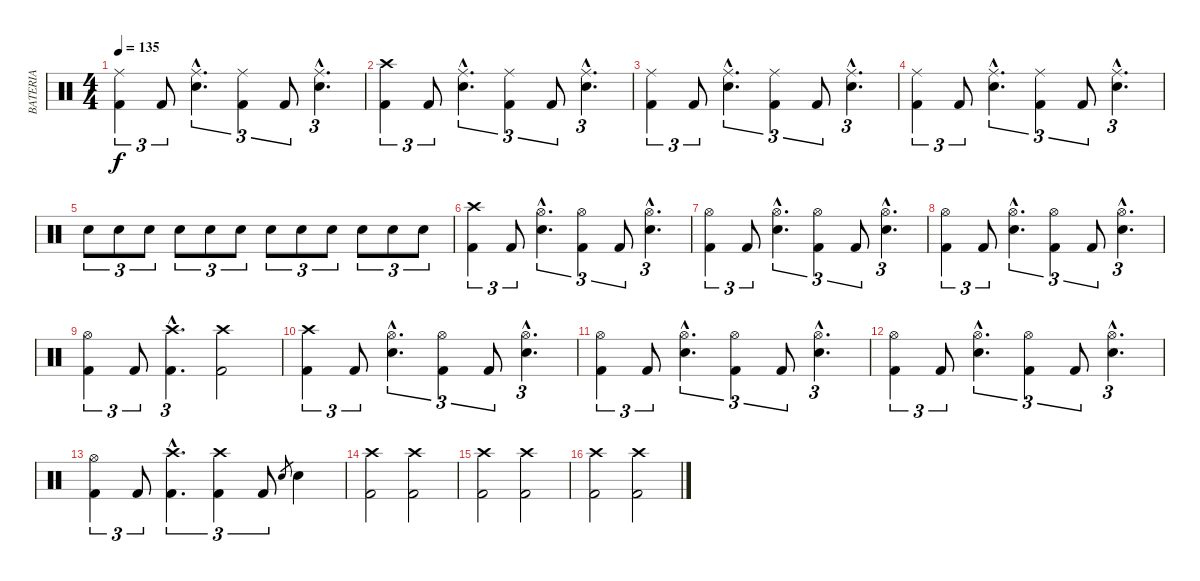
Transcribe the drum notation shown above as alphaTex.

\track ("BATERIA" "BATERIA") {instrument percussion}
\staff {score}
\articulation defaults
\ts (4 4)
\tempo 135
\clef neutral
\ks c
("Ride (middle)" "Kick (hit) 2").4{tu (3 2) dy f} "Kick (hit) 2".8{tu (3 2)} ("Ride (middle)"{hac} "Snare (hit) 2"{hac}).4{d tu (3 2)} ("Ride (middle)" "Kick (hit) 2").4{tu (3 2)} "Kick (hit) 2".8{tu (3 2)} ("Ride (middle)"{hac} "Snare (hit) 2"{hac}).4{d tu (3 2)} |
("Crash high (hit)" "Kick (hit) 2").4{tu (3 2)} "Kick (hit) 2".8{tu (3 2)} ("Ride (middle)"{hac} "Snare (hit) 2"{hac}).4{d tu (3 2)} ("Ride (middle)" "Kick (hit) 2").4{tu (3 2)} "Kick (hit) 2".8{tu (3 2)} ("Ride (middle)"{hac} "Snare (hit) 2"{hac}).4{d tu (3 2)} |
("Ride (middle)" "Kick (hit) 2").4{tu (3 2)} "Kick (hit) 2".8{tu (3 2)} ("Ride (middle)"{hac} "Snare (hit) 2"{hac}).4{d tu (3 2)} ("Ride (middle)" "Kick (hit) 2").4{tu (3 2)} "Kick (hit) 2".8{tu (3 2)} ("Ride (middle)"{hac} "Snare (hit) 2"{hac}).4{d tu (3 2)} |
("Ride (middle)" "Kick (hit) 2").4{tu (3 2)} "Kick (hit) 2".8{tu (3 2)} ("Ride (middle)"{hac} "Snare (hit) 2"{hac}).4{d tu (3 2)} ("Ride (middle)" "Kick (hit) 2").4{tu (3 2)} "Kick (hit) 2".8{tu (3 2)} ("Ride (middle)"{hac} "Snare (hit) 2"{hac}).4{d tu (3 2)} |
"Snare (hit) 2".8{tu (3 2)} "Snare (hit) 2".8{tu (3 2)} "Snare (hit) 2".8{tu (3 2)} "Snare (hit) 2".8{tu (3 2)} "Snare (hit) 2".8{tu (3 2)} "Snare (hit) 2".8{tu (3 2)} "Snare (hit) 2".8{tu (3 2)} "Snare (hit) 2".8{tu (3 2)} "Snare (hit) 2".8{tu (3 2)} "Snare (hit) 2".8{tu (3 2)} "Snare (hit) 2".8{tu (3 2)} "Snare (hit) 2".8{tu (3 2)} |
("Crash high (hit)" "Kick (hit) 2").4{tu (3 2)} "Kick (hit) 2".8{tu (3 2)} ("Hi-Hat (open)"{hac} "Snare (hit) 2"{hac}).4{d tu (3 2)} ("Hi-Hat (open)" "Kick (hit) 2").4{tu (3 2)} "Kick (hit) 2".8{tu (3 2)} ("Hi-Hat (open)"{hac} "Snare (hit) 2"{hac}).4{d tu (3 2)} |
("Hi-Hat (open)" "Kick (hit) 2").4{tu (3 2)} "Kick (hit) 2".8{tu (3 2)} ("Hi-Hat (open)"{hac} "Snare (hit) 2"{hac}).4{d tu (3 2)} ("Hi-Hat (open)" "Kick (hit) 2").4{tu (3 2)} "Kick (hit) 2".8{tu (3 2)} ("Hi-Hat (open)"{hac} "Snare (hit) 2"{hac}).4{d tu (3 2)} |
("Hi-Hat (open)" "Kick (hit) 2").4{tu (3 2)} "Kick (hit) 2".8{tu (3 2)} ("Hi-Hat (open)"{hac} "Snare (hit) 2"{hac}).4{d tu (3 2)} ("Hi-Hat (open)" "Kick (hit) 2").4{tu (3 2)} "Kick (hit) 2".8{tu (3 2)} ("Hi-Hat (open)"{hac} "Snare (hit) 2"{hac}).4{d tu (3 2)} |
("Hi-Hat (open)" "Kick (hit) 2").4{tu (3 2)} "Kick (hit) 2".8{tu (3 2)} ("Crash high (hit)"{hac} "Kick (hit) 2"{hac}).4{d tu (3 2)} ("Crash high (hit)" "Kick (hit) 2").2 |
("Crash high (hit)" "Kick (hit) 2").4{tu (3 2)} "Kick (hit) 2".8{tu (3 2)} ("Hi-Hat (open)"{hac} "Snare (hit) 2"{hac}).4{d tu (3 2)} ("Hi-Hat (open)" "Kick (hit) 2").4{tu (3 2)} "Kick (hit) 2".8{tu (3 2)} ("Hi-Hat (open)"{hac} "Snare (hit) 2"{hac}).4{d tu (3 2)} |
("Hi-Hat (open)" "Kick (hit) 2").4{tu (3 2)} "Kick (hit) 2".8{tu (3 2)} ("Hi-Hat (open)"{hac} "Snare (hit) 2"{hac}).4{d tu (3 2)} ("Hi-Hat (open)" "Kick (hit) 2").4{tu (3 2)} "Kick (hit) 2".8{tu (3 2)} ("Hi-Hat (open)"{hac} "Snare (hit) 2"{hac}).4{d tu (3 2)} |
("Hi-Hat (open)" "Kick (hit) 2").4{tu (3 2)} "Kick (hit) 2".8{tu (3 2)} ("Hi-Hat (open)"{hac} "Snare (hit) 2"{hac}).4{d tu (3 2)} ("Hi-Hat (open)" "Kick (hit) 2").4{tu (3 2)} "Kick (hit) 2".8{tu (3 2)} ("Hi-Hat (open)"{hac} "Snare (hit) 2"{hac}).4{d tu (3 2)} |
("Hi-Hat (open)" "Kick (hit) 2").4{tu (3 2)} "Kick (hit) 2".8{tu (3 2)} ("Crash high (hit)"{hac} "Kick (hit) 2"{hac}).4{d tu (3 2)} ("Crash high (hit)" "Kick (hit) 2").4{tu (3 2)} "Kick (hit) 2".8{tu (3 2)} "Snare (hit) 2".8{gr} "Snare (hit) 2".4 |
("Crash high (hit)" "Kick (hit) 2").2 ("Crash high (hit)" "Kick (hit) 2").2{volume 0} |
("Crash high (hit)" "Kick (hit) 2").2{volume 13} ("Crash high (hit)" "Kick (hit) 2").2{volume 0} |
("Crash high (hit)" "Kick (hit) 2").2{volume 13} ("Crash high (hit)" "Kick (hit) 2").2{volume 0}
